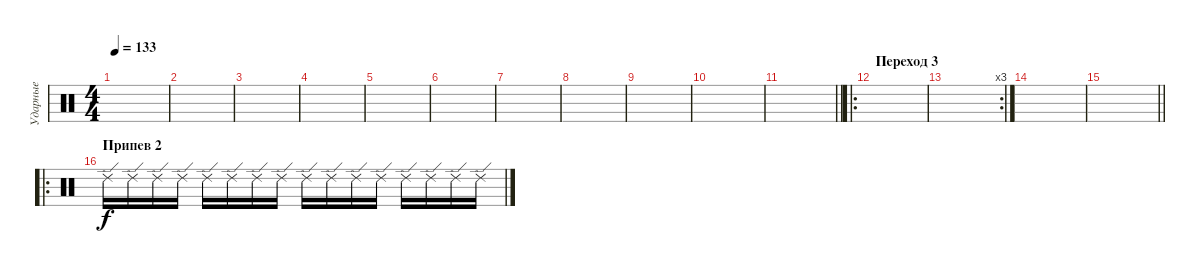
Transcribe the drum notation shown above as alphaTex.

\track ("Ударные" "Ударные") {instrument percussion}
\staff {score}
\articulation defaults
\ts (4 4)
\tempo 133
\clef neutral
\ks c
|
|
|
|
|
|
|
|
|
|
\barLineRight lightlight
|
\ro
\section ("" "Переход 3")
|
\rc 3
|
|
\barLineRight lightlight
|
\ro
\section ("" "Припев 2")
"Ride (edge) 2".16 "Ride (edge) 2".16 "Ride (edge) 2".16 "Ride (edge) 2".16 "Ride (edge) 2".16 "Ride (edge) 2".16 "Ride (edge) 2".16 "Ride (edge) 2".16 "Ride (edge) 2".16 "Ride (edge) 2".16 "Ride (edge) 2".16 "Ride (edge) 2".16 "Ride (edge) 2".16 "Ride (edge) 2".16 "Ride (edge) 2".16 "Ride (edge) 2".16
